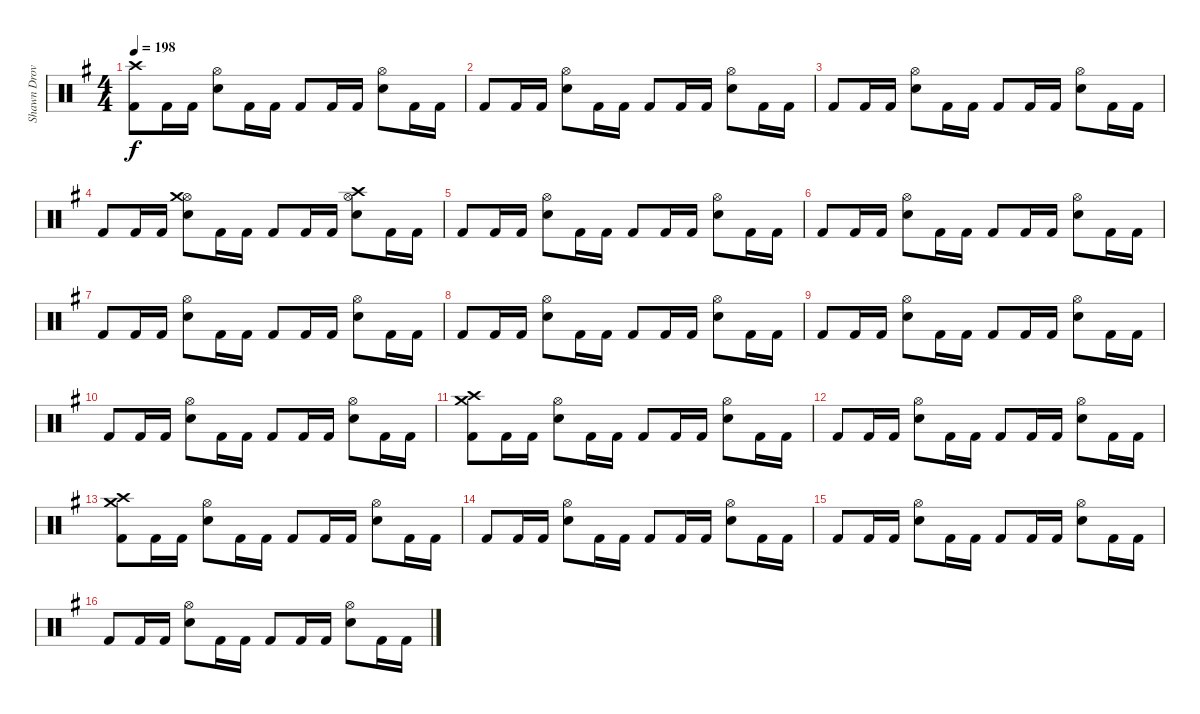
\track ("Shawn Drover" "Shawn Drov") {instrument percussion}
\staff {score}
\articulation defaults
\ts (4 4)
\tempo 198
\clef neutral
\ks g
("Crash high (hit)" "Kick (hit) 2").8{dy f} "Kick (hit) 2".16 "Kick (hit) 2".16 ("Hi-Hat (open)" "Snare (hit) 2").8 "Kick (hit) 2".16 "Kick (hit) 2".16 "Kick (hit) 2".8 "Kick (hit) 2".16 "Kick (hit) 2".16 ("Hi-Hat (open)" "Snare (hit) 2").8 "Kick (hit) 2".16 "Kick (hit) 2".16 |
"Kick (hit) 2".8 "Kick (hit) 2".16 "Kick (hit) 2".16 ("Hi-Hat (open)" "Snare (hit) 2").8 "Kick (hit) 2".16 "Kick (hit) 2".16 "Kick (hit) 2".8 "Kick (hit) 2".16 "Kick (hit) 2".16 ("Hi-Hat (open)" "Snare (hit) 2").8 "Kick (hit) 2".16 "Kick (hit) 2".16 |
"Kick (hit) 2".8 "Kick (hit) 2".16 "Kick (hit) 2".16 ("Hi-Hat (open)" "Snare (hit) 2").8 "Kick (hit) 2".16 "Kick (hit) 2".16 "Kick (hit) 2".8 "Kick (hit) 2".16 "Kick (hit) 2".16 ("Hi-Hat (open)" "Snare (hit) 2").8 "Kick (hit) 2".16 "Kick (hit) 2".16 |
"Kick (hit) 2".8 "Kick (hit) 2".16 "Kick (hit) 2".16 ("Hi-Hat (open)" "Crash medium (hit)" "Snare (hit) 2").8 "Kick (hit) 2".16 "Kick (hit) 2".16 "Kick (hit) 2".8 "Kick (hit) 2".16 "Kick (hit) 2".16 ("Hi-Hat (open)" "Crash high (hit)" "Snare (hit) 2").8 "Kick (hit) 2".16 "Kick (hit) 2".16 |
"Kick (hit) 2".8 "Kick (hit) 2".16 "Kick (hit) 2".16 ("Hi-Hat (open)" "Snare (hit) 2").8 "Kick (hit) 2".16 "Kick (hit) 2".16 "Kick (hit) 2".8 "Kick (hit) 2".16 "Kick (hit) 2".16 ("Hi-Hat (open)" "Snare (hit) 2").8 "Kick (hit) 2".16 "Kick (hit) 2".16 |
"Kick (hit) 2".8 "Kick (hit) 2".16 "Kick (hit) 2".16 ("Hi-Hat (open)" "Snare (hit) 2").8 "Kick (hit) 2".16 "Kick (hit) 2".16 "Kick (hit) 2".8 "Kick (hit) 2".16 "Kick (hit) 2".16 ("Hi-Hat (open)" "Snare (hit) 2").8 "Kick (hit) 2".16 "Kick (hit) 2".16 |
"Kick (hit) 2".8 "Kick (hit) 2".16 "Kick (hit) 2".16 ("Hi-Hat (open)" "Snare (hit) 2").8 "Kick (hit) 2".16 "Kick (hit) 2".16 "Kick (hit) 2".8 "Kick (hit) 2".16 "Kick (hit) 2".16 ("Hi-Hat (open)" "Snare (hit) 2").8 "Kick (hit) 2".16 "Kick (hit) 2".16 |
"Kick (hit) 2".8 "Kick (hit) 2".16 "Kick (hit) 2".16 ("Hi-Hat (open)" "Snare (hit) 2").8 "Kick (hit) 2".16 "Kick (hit) 2".16 "Kick (hit) 2".8 "Kick (hit) 2".16 "Kick (hit) 2".16 ("Hi-Hat (open)" "Snare (hit) 2").8 "Kick (hit) 2".16 "Kick (hit) 2".16 |
"Kick (hit) 2".8 "Kick (hit) 2".16 "Kick (hit) 2".16 ("Hi-Hat (open)" "Snare (hit) 2").8 "Kick (hit) 2".16 "Kick (hit) 2".16 "Kick (hit) 2".8 "Kick (hit) 2".16 "Kick (hit) 2".16 ("Hi-Hat (open)" "Snare (hit) 2").8 "Kick (hit) 2".16 "Kick (hit) 2".16 |
"Kick (hit) 2".8 "Kick (hit) 2".16 "Kick (hit) 2".16 ("Hi-Hat (open)" "Snare (hit) 2").8 "Kick (hit) 2".16 "Kick (hit) 2".16 "Kick (hit) 2".8 "Kick (hit) 2".16 "Kick (hit) 2".16 ("Hi-Hat (open)" "Snare (hit) 2").8 "Kick (hit) 2".16 "Kick (hit) 2".16 |
("Crash medium (hit)" "Crash high (hit)" "Kick (hit) 2").8 "Kick (hit) 2".16 "Kick (hit) 2".16 ("Hi-Hat (open)" "Snare (hit) 2").8 "Kick (hit) 2".16 "Kick (hit) 2".16 "Kick (hit) 2".8 "Kick (hit) 2".16 "Kick (hit) 2".16 ("Hi-Hat (open)" "Snare (hit) 2").8 "Kick (hit) 2".16 "Kick (hit) 2".16 |
"Kick (hit) 2".8 "Kick (hit) 2".16 "Kick (hit) 2".16 ("Hi-Hat (open)" "Snare (hit) 2").8 "Kick (hit) 2".16 "Kick (hit) 2".16 "Kick (hit) 2".8 "Kick (hit) 2".16 "Kick (hit) 2".16 ("Hi-Hat (open)" "Snare (hit) 2").8 "Kick (hit) 2".16 "Kick (hit) 2".16 |
("Crash high (hit)" "Crash medium (hit)" "Kick (hit) 2").8 "Kick (hit) 2".16 "Kick (hit) 2".16 ("Hi-Hat (open)" "Snare (hit) 2").8 "Kick (hit) 2".16 "Kick (hit) 2".16 "Kick (hit) 2".8 "Kick (hit) 2".16 "Kick (hit) 2".16 ("Hi-Hat (open)" "Snare (hit) 2").8 "Kick (hit) 2".16 "Kick (hit) 2".16 |
"Kick (hit) 2".8 "Kick (hit) 2".16 "Kick (hit) 2".16 ("Hi-Hat (open)" "Snare (hit) 2").8 "Kick (hit) 2".16 "Kick (hit) 2".16 "Kick (hit) 2".8 "Kick (hit) 2".16 "Kick (hit) 2".16 ("Hi-Hat (open)" "Snare (hit) 2").8 "Kick (hit) 2".16 "Kick (hit) 2".16 |
"Kick (hit) 2".8 "Kick (hit) 2".16 "Kick (hit) 2".16 ("Hi-Hat (open)" "Snare (hit) 2").8 "Kick (hit) 2".16 "Kick (hit) 2".16 "Kick (hit) 2".8 "Kick (hit) 2".16 "Kick (hit) 2".16 ("Hi-Hat (open)" "Snare (hit) 2").8 "Kick (hit) 2".16 "Kick (hit) 2".16 |
"Kick (hit) 2".8 "Kick (hit) 2".16 "Kick (hit) 2".16 ("Hi-Hat (open)" "Snare (hit) 2").8 "Kick (hit) 2".16 "Kick (hit) 2".16 "Kick (hit) 2".8 "Kick (hit) 2".16 "Kick (hit) 2".16 ("Hi-Hat (open)" "Snare (hit) 2").8 "Kick (hit) 2".16 "Kick (hit) 2".16
